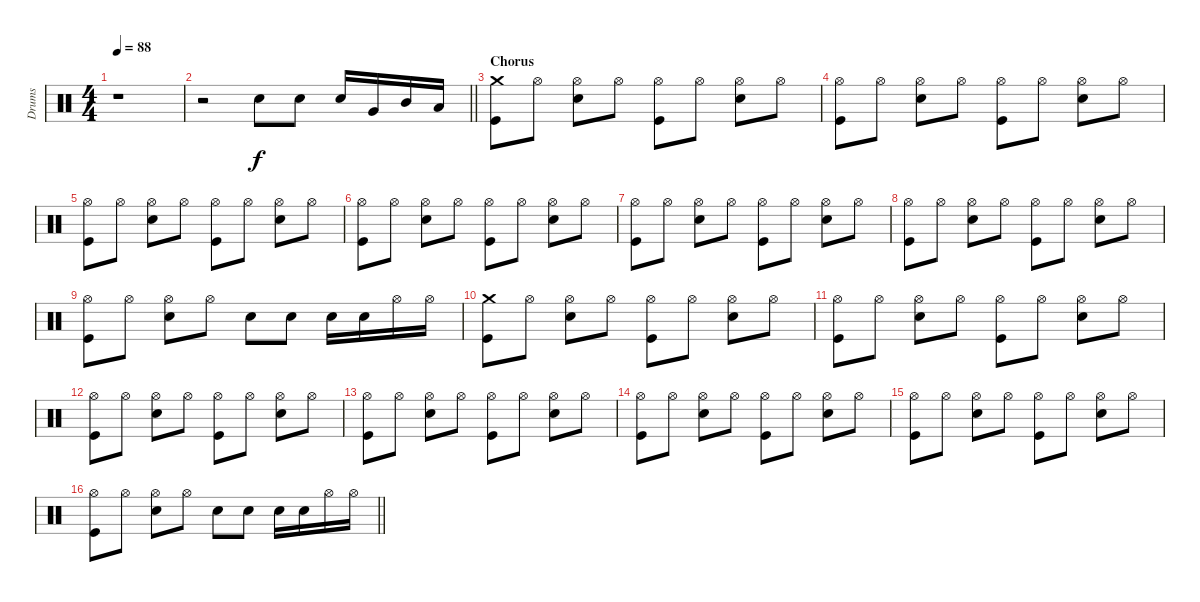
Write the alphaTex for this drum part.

\track ("Drums" "Drums") {instrument percussion}
\staff {score}
\articulation defaults
\ts (4 4)
\tempo 88
\clef neutral
\ks c
r.1{dy f} |
\barLineRight lightlight
r.2 "Snare (hit) 2".8 "Snare (hit) 2".8 "Snare (hit) 2".16 "Very Low Tom (hit)".16 "Mid Tom (hit)".16 "Low Tom (hit)".16 |
\section ("" "Chorus")
("Kick (hit)" "Crash medium (hit)").8 "Hi-Hat (open)".8 ("Hi-Hat (open)" "Snare (hit) 2").8 "Hi-Hat (open)".8 ("Kick (hit)" "Hi-Hat (open)").8 "Hi-Hat (open)".8 ("Hi-Hat (open)" "Snare (hit) 2").8 "Hi-Hat (open)".8 |
("Kick (hit)" "Hi-Hat (open)").8 "Hi-Hat (open)".8 ("Hi-Hat (open)" "Snare (hit) 2").8 "Hi-Hat (open)".8 ("Kick (hit)" "Hi-Hat (open)").8 "Hi-Hat (open)".8 ("Hi-Hat (open)" "Snare (hit) 2").8 "Hi-Hat (open)".8 |
("Kick (hit)" "Hi-Hat (open)").8 "Hi-Hat (open)".8 ("Hi-Hat (open)" "Snare (hit) 2").8 "Hi-Hat (open)".8 ("Kick (hit)" "Hi-Hat (open)").8 "Hi-Hat (open)".8 ("Hi-Hat (open)" "Snare (hit) 2").8 "Hi-Hat (open)".8 |
("Kick (hit)" "Hi-Hat (open)").8 "Hi-Hat (open)".8 ("Hi-Hat (open)" "Snare (hit) 2").8 "Hi-Hat (open)".8 ("Kick (hit)" "Hi-Hat (open)").8 "Hi-Hat (open)".8 ("Hi-Hat (open)" "Snare (hit) 2").8 "Hi-Hat (open)".8 |
("Kick (hit)" "Hi-Hat (open)").8 "Hi-Hat (open)".8 ("Hi-Hat (open)" "Snare (hit) 2").8 "Hi-Hat (open)".8 ("Kick (hit)" "Hi-Hat (open)").8 "Hi-Hat (open)".8 ("Hi-Hat (open)" "Snare (hit) 2").8 "Hi-Hat (open)".8 |
("Kick (hit)" "Hi-Hat (open)").8 "Hi-Hat (open)".8 ("Hi-Hat (open)" "Snare (hit) 2").8 "Hi-Hat (open)".8 ("Kick (hit)" "Hi-Hat (open)").8 "Hi-Hat (open)".8 ("Hi-Hat (open)" "Snare (hit) 2").8 "Hi-Hat (open)".8 |
("Kick (hit)" "Hi-Hat (open)").8 "Hi-Hat (open)".8 ("Hi-Hat (open)" "Snare (hit) 2").8 "Hi-Hat (open)".8 "Snare (hit) 2".8 "Snare (hit) 2".8 "Snare (hit) 2".16 "Snare (hit) 2".16 "Hi-Hat (open)".16 "Hi-Hat (open)".16 |
("Kick (hit)" "Crash medium (hit)").8 "Hi-Hat (open)".8 ("Hi-Hat (open)" "Snare (hit) 2").8 "Hi-Hat (open)".8 ("Kick (hit)" "Hi-Hat (open)").8 "Hi-Hat (open)".8 ("Hi-Hat (open)" "Snare (hit) 2").8 "Hi-Hat (open)".8 |
("Kick (hit)" "Hi-Hat (open)").8 "Hi-Hat (open)".8 ("Hi-Hat (open)" "Snare (hit) 2").8 "Hi-Hat (open)".8 ("Kick (hit)" "Hi-Hat (open)").8 "Hi-Hat (open)".8 ("Hi-Hat (open)" "Snare (hit) 2").8 "Hi-Hat (open)".8 |
("Kick (hit)" "Hi-Hat (open)").8 "Hi-Hat (open)".8 ("Hi-Hat (open)" "Snare (hit) 2").8 "Hi-Hat (open)".8 ("Kick (hit)" "Hi-Hat (open)").8 "Hi-Hat (open)".8 ("Hi-Hat (open)" "Snare (hit) 2").8 "Hi-Hat (open)".8 |
("Kick (hit)" "Hi-Hat (open)").8 "Hi-Hat (open)".8 ("Hi-Hat (open)" "Snare (hit) 2").8 "Hi-Hat (open)".8 ("Kick (hit)" "Hi-Hat (open)").8 "Hi-Hat (open)".8 ("Hi-Hat (open)" "Snare (hit) 2").8 "Hi-Hat (open)".8 |
("Kick (hit)" "Hi-Hat (open)").8 "Hi-Hat (open)".8 ("Hi-Hat (open)" "Snare (hit) 2").8 "Hi-Hat (open)".8 ("Kick (hit)" "Hi-Hat (open)").8 "Hi-Hat (open)".8 ("Hi-Hat (open)" "Snare (hit) 2").8 "Hi-Hat (open)".8 |
("Kick (hit)" "Hi-Hat (open)").8 "Hi-Hat (open)".8 ("Hi-Hat (open)" "Snare (hit) 2").8 "Hi-Hat (open)".8 ("Kick (hit)" "Hi-Hat (open)").8 "Hi-Hat (open)".8 ("Hi-Hat (open)" "Snare (hit) 2").8 "Hi-Hat (open)".8 |
\barLineRight lightlight
("Kick (hit)" "Hi-Hat (open)").8 "Hi-Hat (open)".8 ("Hi-Hat (open)" "Snare (hit) 2").8 "Hi-Hat (open)".8 "Snare (hit) 2".8 "Snare (hit) 2".8 "Snare (hit) 2".16 "Snare (hit) 2".16 "Hi-Hat (open)".16 "Hi-Hat (open)".16
